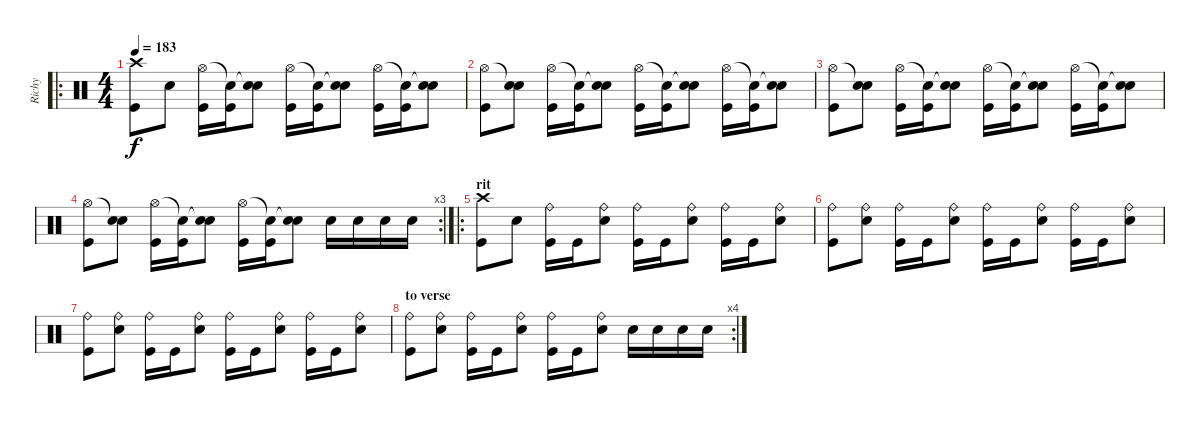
\track ("Richy" "Richy") {instrument percussion}
\staff {score}
\articulation defaults
\ro
\ts (4 4)
\tempo 183
\clef neutral
\ks c
("Kick (hit)" "Crash high (hit)").8{dy f} "Snare (hit) 2".8 ("Kick (hit)" "Hi-Hat (open)").16 ("Kick (hit)" "Snare (hit)"{t}).16 ("Snare (hit) 2" "Snare (hit)"{t}).8 ("Kick (hit)" "Hi-Hat (open)").16 ("Kick (hit)" "Snare (hit)"{t}).16 ("Snare (hit) 2" "Snare (hit)"{t}).8 ("Kick (hit)" "Hi-Hat (open)").16 ("Kick (hit)" "Snare (hit)"{t}).16 ("Snare (hit) 2" "Snare (hit)"{t}).8 |
("Kick (hit)" "Hi-Hat (open)").8 ("Snare (hit) 2" "Snare (hit)"{t}).8 ("Kick (hit)" "Hi-Hat (open)").16 ("Kick (hit)" "Snare (hit)"{t}).16 ("Snare (hit) 2" "Snare (hit)"{t}).8 ("Kick (hit)" "Hi-Hat (open)").16 ("Kick (hit)" "Snare (hit)"{t}).16 ("Snare (hit) 2" "Snare (hit)"{t}).8 ("Kick (hit)" "Hi-Hat (open)").16 ("Kick (hit)" "Snare (hit)"{t}).16 ("Snare (hit) 2" "Snare (hit)"{t}).8 |
("Kick (hit)" "Hi-Hat (open)").8 ("Snare (hit) 2" "Snare (hit)"{t}).8 ("Kick (hit)" "Hi-Hat (open)").16 ("Kick (hit)" "Snare (hit)"{t}).16 ("Snare (hit) 2" "Snare (hit)"{t}).8 ("Kick (hit)" "Hi-Hat (open)").16 ("Kick (hit)" "Snare (hit)"{t}).16 ("Snare (hit) 2" "Snare (hit)"{t}).8 ("Kick (hit)" "Hi-Hat (open)").16 ("Kick (hit)" "Snare (hit)"{t}).16 ("Snare (hit) 2" "Snare (hit)"{t}).8 |
\rc 3
("Kick (hit)" "Hi-Hat (open)").8 ("Snare (hit) 2" "Snare (hit)"{t}).8 ("Kick (hit)" "Hi-Hat (open)").16 ("Kick (hit)" "Snare (hit)"{t}).16 ("Snare (hit) 2" "Snare (hit)"{t}).8 ("Kick (hit)" "Hi-Hat (open)").16 ("Kick (hit)" "Snare (hit)"{t}).16 ("Snare (hit) 2" "Snare (hit)"{t}).8 "Snare (hit) 2".16 "Snare (hit) 2".16 "Snare (hit) 2".16 "Snare (hit) 2".16 |
\ro
\section ("" "rit")
("Kick (hit)" "Crash high (hit)").8 "Snare (hit) 2".8 ("Kick (hit)" "Ride (bell)").16 "Kick (hit)".16 ("Snare (hit) 2" "Ride (bell)").8 ("Kick (hit)" "Ride (bell)").16 "Kick (hit)".16 ("Snare (hit) 2" "Ride (bell)").8 ("Kick (hit)" "Ride (bell)").16 "Kick (hit)".16 ("Snare (hit) 2" "Ride (bell)").8 |
("Kick (hit)" "Ride (bell)").8 ("Snare (hit) 2" "Ride (bell)").8 ("Kick (hit)" "Ride (bell)").16 "Kick (hit)".16 ("Snare (hit) 2" "Ride (bell)").8 ("Kick (hit)" "Ride (bell)").16 "Kick (hit)".16 ("Snare (hit) 2" "Ride (bell)").8 ("Kick (hit)" "Ride (bell)").16 "Kick (hit)".16 ("Snare (hit) 2" "Ride (bell)").8 |
("Kick (hit)" "Ride (bell)").8 ("Snare (hit) 2" "Ride (bell)").8 ("Kick (hit)" "Ride (bell)").16 "Kick (hit)".16 ("Snare (hit) 2" "Ride (bell)").8 ("Kick (hit)" "Ride (bell)").16 "Kick (hit)".16 ("Snare (hit) 2" "Ride (bell)").8 ("Kick (hit)" "Ride (bell)").16 "Kick (hit)".16 ("Snare (hit) 2" "Ride (bell)").8 |
\rc 4
\section ("" "to verse ")
("Kick (hit)" "Ride (bell)").8 ("Snare (hit) 2" "Ride (bell)").8 ("Kick (hit)" "Ride (bell)").16 "Kick (hit)".16 ("Snare (hit) 2" "Ride (bell)").8 ("Kick (hit)" "Ride (bell)").16 "Kick (hit)".16 ("Snare (hit) 2" "Ride (bell)").8 "Snare (hit) 2".16 "Snare (hit) 2".16 "Snare (hit) 2".16 "Snare (hit) 2".16
